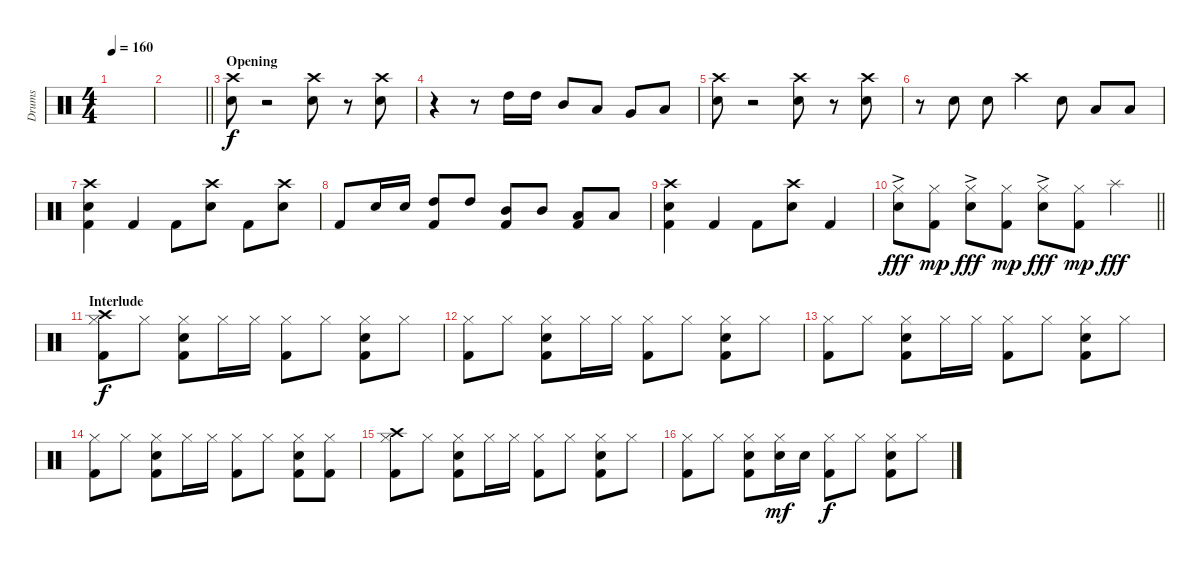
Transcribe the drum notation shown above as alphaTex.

\track ("Drums" "Drums") {instrument percussion}
\staff {score}
\articulation defaults
\ts (4 4)
\tempo 160
\clef neutral
\ks c
|
\barLineRight lightlight
|
\section ("" "Opening")
("Crash high (hit)" "Snare (hit) 2").8 r.2 ("Crash high (hit)" "Snare (hit) 2").8 r.8 ("Crash high (hit)" "Snare (hit) 2").8 |
r.4 r.8 "High Tom (hit)".16 "High Tom (hit)".16 "Mid Tom (hit)".8 "Low Tom (hit)".8 "Very Low Tom (hit)".8 "Low Floor Tom (hit)".8 |
("Crash high (hit)" "Snare (hit) 2").8 r.2 ("Crash high (hit)" "Snare (hit) 2").8 r.8 ("Crash high (hit)" "Snare (hit) 2").8 |
r.8 "Snare (hit) 2".8 "Snare (hit) 2".8 "Crash high (hit)".4 "Snare (hit) 2".8 "Low Floor Tom (hit)".8 "Low Floor Tom (hit)".8 |
("Crash high (hit)" "Snare (hit) 2" "Kick (hit) 2").4 "Kick (hit) 2".4 "Kick (hit) 2".8 ("Crash high (hit)" "Snare (hit) 2").8 "Kick (hit) 2".8 ("Crash high (hit)" "Snare (hit) 2").8 |
"Kick (hit) 2".8 "Snare (hit) 2".16 "Snare (hit) 2".16 ("High Tom (hit)" "Kick (hit) 2").8 "High Tom (hit)".8 ("Mid Tom (hit)" "Kick (hit) 2").8 "Mid Tom (hit)".8 ("Low Tom (hit)" "Kick (hit) 2").8 "Low Tom (hit)".8 |
("Crash high (hit)" "Snare (hit) 2" "Kick (hit) 2").4 "Kick (hit) 2".4 "Kick (hit) 2".8 ("Crash high (hit)" "Snare (hit) 2").8 "Kick (hit) 2".4 |
\barLineRight lightlight
("Hi-Hat (closed)"{ac} "Snare (hit) 2").8{dy fff} ("Hi-Hat (closed)" "Kick (hit) 2").8{dy mp} ("Hi-Hat (closed)"{ac} "Snare (hit) 2").8{dy fff} ("Hi-Hat (closed)" "Kick (hit) 2").8{dy mp} ("Hi-Hat (closed)"{ac} "Snare (hit) 2").8{dy fff} ("Hi-Hat (closed)" "Kick (hit) 2").8{dy mp} "Splash (hit)".4{dy fff} |
\section ("" "Interlude")
("Hi-Hat (closed)" "Crash high (hit)" "Kick (hit) 2").8{dy f} "Hi-Hat (closed)".8 ("Hi-Hat (closed)" "Snare (hit) 2" "Kick (hit) 2").8 "Hi-Hat (closed)".16 "Hi-Hat (closed)".16 ("Hi-Hat (closed)" "Kick (hit) 2").8 "Hi-Hat (closed)".8 ("Hi-Hat (closed)" "Snare (hit) 2" "Kick (hit) 2").8 "Hi-Hat (closed)".8 |
("Hi-Hat (closed)" "Kick (hit) 2").8 "Hi-Hat (closed)".8 ("Hi-Hat (closed)" "Snare (hit) 2" "Kick (hit) 2").8 "Hi-Hat (closed)".16 "Hi-Hat (closed)".16 ("Hi-Hat (closed)" "Kick (hit) 2").8 "Hi-Hat (closed)".8 ("Hi-Hat (closed)" "Snare (hit) 2" "Kick (hit) 2").8 "Hi-Hat (closed)".8 |
("Hi-Hat (closed)" "Kick (hit) 2").8 "Hi-Hat (closed)".8 ("Hi-Hat (closed)" "Snare (hit) 2" "Kick (hit) 2").8 "Hi-Hat (closed)".16 "Hi-Hat (closed)".16 ("Hi-Hat (closed)" "Kick (hit) 2").8 "Hi-Hat (closed)".8 ("Hi-Hat (closed)" "Snare (hit) 2" "Kick (hit) 2").8 "Hi-Hat (closed)".8 |
("Hi-Hat (closed)" "Kick (hit) 2").8 "Hi-Hat (closed)".8 ("Hi-Hat (closed)" "Snare (hit) 2" "Kick (hit) 2").8 "Hi-Hat (closed)".16 "Hi-Hat (closed)".16 ("Hi-Hat (closed)" "Kick (hit) 2").8 "Hi-Hat (closed)".8 ("Hi-Hat (closed)" "Snare (hit) 2" "Kick (hit) 2").8 ("Hi-Hat (closed)" "Kick (hit) 2").8 |
("Hi-Hat (closed)" "Crash high (hit)" "Kick (hit) 2").8 "Hi-Hat (closed)".8 ("Hi-Hat (closed)" "Snare (hit) 2" "Kick (hit) 2").8 "Hi-Hat (closed)".16 "Hi-Hat (closed)".16 ("Hi-Hat (closed)" "Kick (hit) 2").8 "Hi-Hat (closed)".8 ("Hi-Hat (closed)" "Snare (hit) 2" "Kick (hit) 2").8 "Hi-Hat (closed)".8 |
("Hi-Hat (closed)" "Kick (hit) 2").8 "Hi-Hat (closed)".8 ("Hi-Hat (closed)" "Snare (hit) 2" "Kick (hit) 2").8 ("Hi-Hat (closed)" "Snare (hit) 2").16{dy mf} "Snare (hit) 2".16 ("Hi-Hat (closed)" "Kick (hit) 2").8{dy f} "Hi-Hat (closed)".8 ("Hi-Hat (closed)" "Snare (hit) 2" "Kick (hit) 2").8 "Hi-Hat (closed)".8
